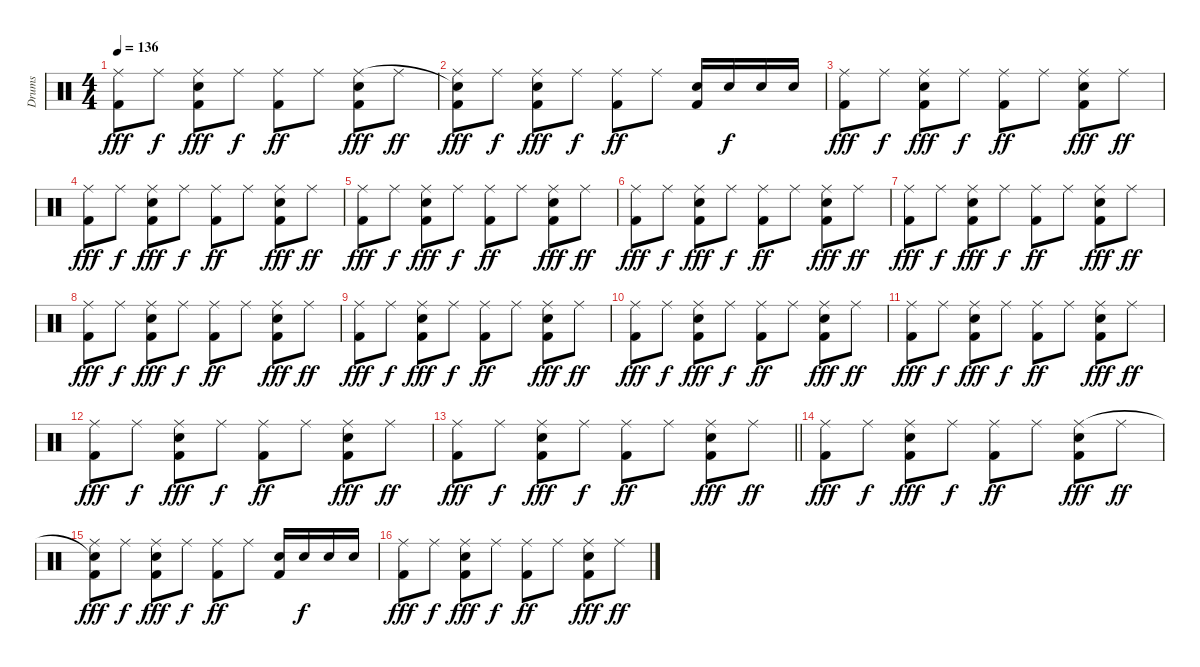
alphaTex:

\track ("Drums" "Drums") {instrument percussion}
\staff {score}
\articulation defaults
\ts (4 4)
\tempo 136
\clef neutral
\ks c
("Kick (hit) 2" "Ride (middle)").8{dy fff} "Ride (middle)".8{dy f} ("Kick (hit) 2" "Electric Snare (hit)" "Ride (middle)").8{dy fff} "Ride (middle)".8{dy f} ("Kick (hit) 2" "Ride (middle)").8{dy ff} "Ride (middle)".8 ("Kick (hit) 2" "Electric Snare (hit)" "Ride (middle)").8{dy fff} "Ride (middle)".8{dy ff} |
("Kick (hit) 2" "Ride (middle)" "Snare (hit)"{t}).8{dy fff} "Ride (middle)".8{dy f} ("Kick (hit) 2" "Electric Snare (hit)" "Ride (middle)").8{dy fff} "Ride (middle)".8{dy f} ("Kick (hit) 2" "Ride (middle)").8{dy ff} "Ride (middle)".8 ("Kick (hit) 2" "Electric Snare (hit)").16 "Electric Snare (hit)".16{dy f} "Electric Snare (hit)".16 "Electric Snare (hit)".16 |
("Kick (hit) 2" "Ride (middle)").8{dy fff} "Ride (middle)".8{dy f} ("Kick (hit) 2" "Electric Snare (hit)" "Ride (middle)").8{dy fff} "Ride (middle)".8{dy f} ("Kick (hit) 2" "Ride (middle)").8{dy ff} "Ride (middle)".8 ("Kick (hit) 2" "Electric Snare (hit)" "Ride (middle)").8{dy fff} "Ride (middle)".8{dy ff} |
("Kick (hit) 2" "Ride (middle)").8{dy fff} "Ride (middle)".8{dy f} ("Kick (hit) 2" "Electric Snare (hit)" "Ride (middle)").8{dy fff} "Ride (middle)".8{dy f} ("Kick (hit) 2" "Ride (middle)").8{dy ff} "Ride (middle)".8 ("Kick (hit) 2" "Electric Snare (hit)" "Ride (middle)").8{dy fff} "Ride (middle)".8{dy ff} |
("Kick (hit) 2" "Ride (middle)").8{dy fff} "Ride (middle)".8{dy f} ("Kick (hit) 2" "Electric Snare (hit)" "Ride (middle)").8{dy fff} "Ride (middle)".8{dy f} ("Kick (hit) 2" "Ride (middle)").8{dy ff} "Ride (middle)".8 ("Kick (hit) 2" "Electric Snare (hit)" "Ride (middle)").8{dy fff} "Ride (middle)".8{dy ff} |
("Kick (hit) 2" "Ride (middle)").8{dy fff} "Ride (middle)".8{dy f} ("Kick (hit) 2" "Electric Snare (hit)" "Ride (middle)").8{dy fff} "Ride (middle)".8{dy f} ("Kick (hit) 2" "Ride (middle)").8{dy ff} "Ride (middle)".8 ("Kick (hit) 2" "Electric Snare (hit)" "Ride (middle)").8{dy fff} "Ride (middle)".8{dy ff} |
("Kick (hit) 2" "Ride (middle)").8{dy fff} "Ride (middle)".8{dy f} ("Kick (hit) 2" "Electric Snare (hit)" "Ride (middle)").8{dy fff} "Ride (middle)".8{dy f} ("Kick (hit) 2" "Ride (middle)").8{dy ff} "Ride (middle)".8 ("Kick (hit) 2" "Electric Snare (hit)" "Ride (middle)").8{dy fff} "Ride (middle)".8{dy ff} |
("Kick (hit) 2" "Ride (middle)").8{dy fff} "Ride (middle)".8{dy f} ("Kick (hit) 2" "Electric Snare (hit)" "Ride (middle)").8{dy fff} "Ride (middle)".8{dy f} ("Kick (hit) 2" "Ride (middle)").8{dy ff} "Ride (middle)".8 ("Kick (hit) 2" "Electric Snare (hit)" "Ride (middle)").8{dy fff} "Ride (middle)".8{dy ff} |
("Kick (hit) 2" "Ride (middle)").8{dy fff} "Ride (middle)".8{dy f} ("Kick (hit) 2" "Electric Snare (hit)" "Ride (middle)").8{dy fff} "Ride (middle)".8{dy f} ("Kick (hit) 2" "Ride (middle)").8{dy ff} "Ride (middle)".8 ("Kick (hit) 2" "Electric Snare (hit)" "Ride (middle)").8{dy fff} "Ride (middle)".8{dy ff} |
("Kick (hit) 2" "Ride (middle)").8{dy fff} "Ride (middle)".8{dy f} ("Kick (hit) 2" "Electric Snare (hit)" "Ride (middle)").8{dy fff} "Ride (middle)".8{dy f} ("Kick (hit) 2" "Ride (middle)").8{dy ff} "Ride (middle)".8 ("Kick (hit) 2" "Electric Snare (hit)" "Ride (middle)").8{dy fff} "Ride (middle)".8{dy ff} |
("Kick (hit) 2" "Ride (middle)").8{dy fff} "Ride (middle)".8{dy f} ("Kick (hit) 2" "Electric Snare (hit)" "Ride (middle)").8{dy fff} "Ride (middle)".8{dy f} ("Kick (hit) 2" "Ride (middle)").8{dy ff} "Ride (middle)".8 ("Kick (hit) 2" "Electric Snare (hit)" "Ride (middle)").8{dy fff} "Ride (middle)".8{dy ff} |
("Kick (hit) 2" "Ride (middle)").8{dy fff} "Ride (middle)".8{dy f} ("Kick (hit) 2" "Electric Snare (hit)" "Ride (middle)").8{dy fff} "Ride (middle)".8{dy f} ("Kick (hit) 2" "Ride (middle)").8{dy ff} "Ride (middle)".8 ("Kick (hit) 2" "Electric Snare (hit)" "Ride (middle)").8{dy fff} "Ride (middle)".8{dy ff} |
\barLineRight lightlight
("Kick (hit) 2" "Ride (middle)").8{dy fff} "Ride (middle)".8{dy f} ("Kick (hit) 2" "Electric Snare (hit)" "Ride (middle)").8{dy fff} "Ride (middle)".8{dy f} ("Kick (hit) 2" "Ride (middle)").8{dy ff} "Ride (middle)".8 ("Kick (hit) 2" "Electric Snare (hit)" "Ride (middle)").8{dy fff} "Ride (middle)".8{dy ff} |
("Kick (hit) 2" "Ride (middle)").8{dy fff} "Ride (middle)".8{dy f} ("Kick (hit) 2" "Electric Snare (hit)" "Ride (middle)").8{dy fff} "Ride (middle)".8{dy f} ("Kick (hit) 2" "Ride (middle)").8{dy ff} "Ride (middle)".8 ("Kick (hit) 2" "Electric Snare (hit)" "Ride (middle)").8{dy fff} "Ride (middle)".8{dy ff} |
("Kick (hit) 2" "Ride (middle)" "Snare (hit)"{t}).8{dy fff} "Ride (middle)".8{dy f} ("Kick (hit) 2" "Electric Snare (hit)" "Ride (middle)").8{dy fff} "Ride (middle)".8{dy f} ("Kick (hit) 2" "Ride (middle)").8{dy ff} "Ride (middle)".8 ("Kick (hit) 2" "Electric Snare (hit)").16 "Electric Snare (hit)".16{dy f} "Electric Snare (hit)".16 "Electric Snare (hit)".16 |
("Kick (hit) 2" "Ride (middle)").8{dy fff} "Ride (middle)".8{dy f} ("Kick (hit) 2" "Electric Snare (hit)" "Ride (middle)").8{dy fff} "Ride (middle)".8{dy f} ("Kick (hit) 2" "Ride (middle)").8{dy ff} "Ride (middle)".8 ("Kick (hit) 2" "Electric Snare (hit)" "Ride (middle)").8{dy fff} "Ride (middle)".8{dy ff}
